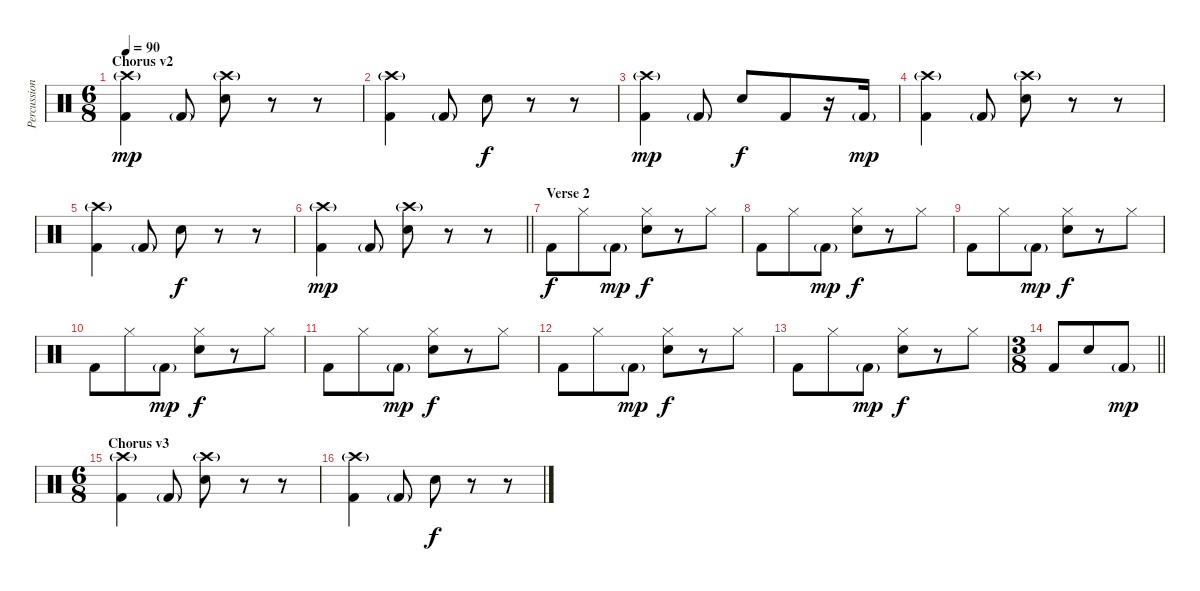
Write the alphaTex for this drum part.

\track ("Percussion" "Percussion") {instrument percussion}
\staff {score}
\articulation defaults
\ts (6 8)
\section ("" "Chorus v2")
\tempo 90
\clef neutral
\ks c
("Crash high (hit)"{g} "Kick (hit) 2").4{dy mp} "Kick (hit) 2"{g}.8 ("Crash high (hit)"{g} "Snare (hit) 2").8 r.8 r.8 |
("Crash high (hit)"{g} "Kick (hit) 2").4 "Kick (hit) 2"{g}.8 "Snare (hit) 2".8{dy f} r.8 r.8 |
("Crash high (hit)"{g} "Kick (hit) 2").4{dy mp} "Kick (hit) 2"{g}.8 "Snare (hit) 2".8{dy f} "Kick (hit) 2".8 r.16 "Kick (hit) 2"{g}.16{dy mp} |
("Crash high (hit)"{g} "Kick (hit) 2").4 "Kick (hit) 2"{g}.8 ("Crash high (hit)"{g} "Snare (hit) 2").8 r.8 r.8 |
("Crash high (hit)"{g} "Kick (hit) 2").4 "Kick (hit) 2"{g}.8 "Snare (hit) 2".8{dy f} r.8 r.8 |
\barLineRight lightlight
("Crash high (hit)"{g} "Kick (hit) 2").4{dy mp} "Kick (hit) 2"{g}.8 ("Crash high (hit)"{g} "Snare (hit) 2").8 r.8 r.8 |
\section ("" "Verse 2")
"Kick (hit) 2".8{dy f} "Hi-Hat (closed)".8 "Kick (hit) 2"{g}.8{dy mp} ("Hi-Hat (closed)" "Snare (hit) 2").8{dy f} r.8 "Hi-Hat (closed)".8 |
"Kick (hit) 2".8 "Hi-Hat (closed)".8 "Kick (hit) 2"{g}.8{dy mp} ("Hi-Hat (closed)" "Snare (hit) 2").8{dy f} r.8 "Hi-Hat (closed)".8 |
"Kick (hit) 2".8 "Hi-Hat (closed)".8 "Kick (hit) 2"{g}.8{dy mp} ("Hi-Hat (closed)" "Snare (hit) 2").8{dy f} r.8 "Hi-Hat (closed)".8 |
"Kick (hit) 2".8 "Hi-Hat (closed)".8 "Kick (hit) 2"{g}.8{dy mp} ("Hi-Hat (closed)" "Snare (hit) 2").8{dy f} r.8 "Hi-Hat (closed)".8 |
"Kick (hit) 2".8 "Hi-Hat (closed)".8 "Kick (hit) 2"{g}.8{dy mp} ("Hi-Hat (closed)" "Snare (hit) 2").8{dy f} r.8 "Hi-Hat (closed)".8 |
"Kick (hit) 2".8 "Hi-Hat (closed)".8 "Kick (hit) 2"{g}.8{dy mp} ("Hi-Hat (closed)" "Snare (hit) 2").8{dy f} r.8 "Hi-Hat (closed)".8 |
"Kick (hit) 2".8 "Hi-Hat (closed)".8 "Kick (hit) 2"{g}.8{dy mp} ("Hi-Hat (closed)" "Snare (hit) 2").8{dy f} r.8 "Hi-Hat (closed)".8 |
\ts (3 8)
\barLineRight lightlight "Kick (hit) 2".8 "Snare (hit) 2".8 "Kick (hit) 2"{g}.8{dy mp}
|
\ts (6 8)
\section ("" "Chorus v3")
("Crash high (hit)"{g} "Kick (hit) 2").4 "Kick (hit) 2"{g}.8 ("Crash high (hit)"{g} "Snare (hit) 2").8 r.8 r.8 |
("Crash high (hit)"{g} "Kick (hit) 2").4 "Kick (hit) 2"{g}.8 "Snare (hit) 2".8{dy f} r.8 r.8
